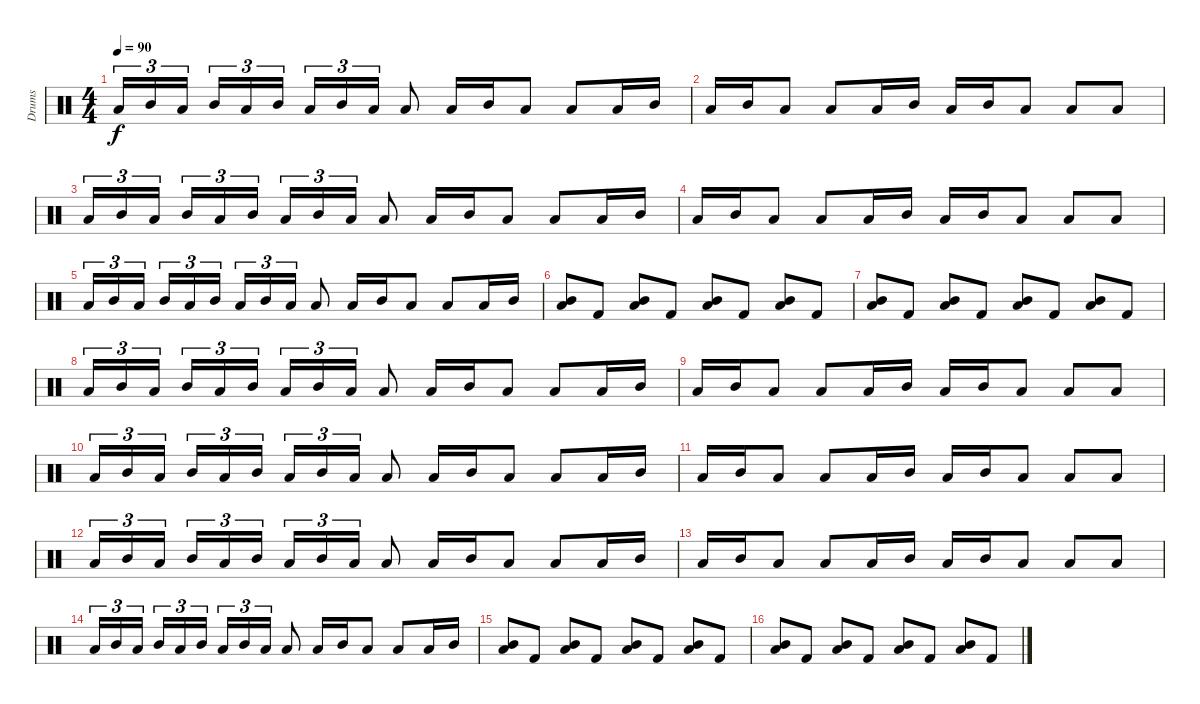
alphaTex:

\track ("Drums" "Drums") {instrument percussion}
\staff {score}
\articulation defaults
\ts (4 4)
\tempo 90
\clef neutral
\ks c "Low Tom (hit)".16{tu (3 2) dy f} "Mid Tom (hit)".16{tu (3 2)} "Low Tom (hit)".16{tu (3 2) beam splitsecondary} "Mid Tom (hit)".16{tu (3 2)} "Low Tom (hit)".16{tu (3 2)} "Mid Tom (hit)".16{tu (3 2)} "Low Tom (hit)".16{tu (3 2)} "Mid Tom (hit)".16{tu (3 2)} "Low Tom (hit)".16{tu (3 2)} "Low Tom (hit)".8 "Low Tom (hit)".16 "Mid Tom (hit)".16 "Low Tom (hit)".8 "Low Tom (hit)".8 "Low Tom (hit)".16 "Mid Tom (hit)".16
|
"Low Tom (hit)".16 "Mid Tom (hit)".16 "Low Tom (hit)".8 "Low Tom (hit)".8 "Low Tom (hit)".16 "Mid Tom (hit)".16 "Low Tom (hit)".16 "Mid Tom (hit)".16 "Low Tom (hit)".8 "Low Tom (hit)".8 "Low Tom (hit)".8 |
"Low Tom (hit)".16{tu (3 2)} "Mid Tom (hit)".16{tu (3 2)} "Low Tom (hit)".16{tu (3 2) beam splitsecondary} "Mid Tom (hit)".16{tu (3 2)} "Low Tom (hit)".16{tu (3 2)} "Mid Tom (hit)".16{tu (3 2)} "Low Tom (hit)".16{tu (3 2)} "Mid Tom (hit)".16{tu (3 2)} "Low Tom (hit)".16{tu (3 2)} "Low Tom (hit)".8 "Low Tom (hit)".16 "Mid Tom (hit)".16 "Low Tom (hit)".8 "Low Tom (hit)".8 "Low Tom (hit)".16 "Mid Tom (hit)".16 |
"Low Tom (hit)".16 "Mid Tom (hit)".16 "Low Tom (hit)".8 "Low Tom (hit)".8 "Low Tom (hit)".16 "Mid Tom (hit)".16 "Low Tom (hit)".16 "Mid Tom (hit)".16 "Low Tom (hit)".8 "Low Tom (hit)".8 "Low Tom (hit)".8 |
"Low Tom (hit)".16{tu (3 2)} "Mid Tom (hit)".16{tu (3 2)} "Low Tom (hit)".16{tu (3 2) beam splitsecondary} "Mid Tom (hit)".16{tu (3 2)} "Low Tom (hit)".16{tu (3 2)} "Mid Tom (hit)".16{tu (3 2)} "Low Tom (hit)".16{tu (3 2)} "Mid Tom (hit)".16{tu (3 2)} "Low Tom (hit)".16{tu (3 2)} "Low Tom (hit)".8 "Low Tom (hit)".16 "Mid Tom (hit)".16 "Low Tom (hit)".8 "Low Tom (hit)".8 "Low Tom (hit)".16 "Mid Tom (hit)".16 |
("Mid Tom (hit)" "Low Tom (hit)").8 "Kick (hit) 2".8 ("Mid Tom (hit)" "Low Tom (hit)").8 "Kick (hit) 2".8 ("Mid Tom (hit)" "Low Tom (hit)").8 "Kick (hit) 2".8 ("Mid Tom (hit)" "Low Tom (hit)").8 "Kick (hit) 2".8 |
("Mid Tom (hit)" "Low Tom (hit)").8 "Kick (hit) 2".8 ("Mid Tom (hit)" "Low Tom (hit)").8 "Kick (hit) 2".8 ("Mid Tom (hit)" "Low Tom (hit)").8 "Kick (hit) 2".8 ("Mid Tom (hit)" "Low Tom (hit)").8 "Kick (hit) 2".8 |
"Low Tom (hit)".16{tu (3 2)} "Mid Tom (hit)".16{tu (3 2)} "Low Tom (hit)".16{tu (3 2) beam splitsecondary} "Mid Tom (hit)".16{tu (3 2)} "Low Tom (hit)".16{tu (3 2)} "Mid Tom (hit)".16{tu (3 2)} "Low Tom (hit)".16{tu (3 2)} "Mid Tom (hit)".16{tu (3 2)} "Low Tom (hit)".16{tu (3 2)} "Low Tom (hit)".8 "Low Tom (hit)".16 "Mid Tom (hit)".16 "Low Tom (hit)".8 "Low Tom (hit)".8 "Low Tom (hit)".16 "Mid Tom (hit)".16 |
"Low Tom (hit)".16 "Mid Tom (hit)".16 "Low Tom (hit)".8 "Low Tom (hit)".8 "Low Tom (hit)".16 "Mid Tom (hit)".16 "Low Tom (hit)".16 "Mid Tom (hit)".16 "Low Tom (hit)".8 "Low Tom (hit)".8 "Low Tom (hit)".8 |
"Low Tom (hit)".16{tu (3 2)} "Mid Tom (hit)".16{tu (3 2)} "Low Tom (hit)".16{tu (3 2) beam splitsecondary} "Mid Tom (hit)".16{tu (3 2)} "Low Tom (hit)".16{tu (3 2)} "Mid Tom (hit)".16{tu (3 2)} "Low Tom (hit)".16{tu (3 2)} "Mid Tom (hit)".16{tu (3 2)} "Low Tom (hit)".16{tu (3 2)} "Low Tom (hit)".8 "Low Tom (hit)".16 "Mid Tom (hit)".16 "Low Tom (hit)".8 "Low Tom (hit)".8 "Low Tom (hit)".16 "Mid Tom (hit)".16 |
"Low Tom (hit)".16 "Mid Tom (hit)".16 "Low Tom (hit)".8 "Low Tom (hit)".8 "Low Tom (hit)".16 "Mid Tom (hit)".16 "Low Tom (hit)".16 "Mid Tom (hit)".16 "Low Tom (hit)".8 "Low Tom (hit)".8 "Low Tom (hit)".8 |
"Low Tom (hit)".16{tu (3 2)} "Mid Tom (hit)".16{tu (3 2)} "Low Tom (hit)".16{tu (3 2) beam splitsecondary} "Mid Tom (hit)".16{tu (3 2)} "Low Tom (hit)".16{tu (3 2)} "Mid Tom (hit)".16{tu (3 2)} "Low Tom (hit)".16{tu (3 2)} "Mid Tom (hit)".16{tu (3 2)} "Low Tom (hit)".16{tu (3 2)} "Low Tom (hit)".8 "Low Tom (hit)".16 "Mid Tom (hit)".16 "Low Tom (hit)".8 "Low Tom (hit)".8 "Low Tom (hit)".16 "Mid Tom (hit)".16 |
"Low Tom (hit)".16 "Mid Tom (hit)".16 "Low Tom (hit)".8 "Low Tom (hit)".8 "Low Tom (hit)".16 "Mid Tom (hit)".16 "Low Tom (hit)".16 "Mid Tom (hit)".16 "Low Tom (hit)".8 "Low Tom (hit)".8 "Low Tom (hit)".8 |
"Low Tom (hit)".16{tu (3 2)} "Mid Tom (hit)".16{tu (3 2)} "Low Tom (hit)".16{tu (3 2) beam splitsecondary} "Mid Tom (hit)".16{tu (3 2)} "Low Tom (hit)".16{tu (3 2)} "Mid Tom (hit)".16{tu (3 2)} "Low Tom (hit)".16{tu (3 2)} "Mid Tom (hit)".16{tu (3 2)} "Low Tom (hit)".16{tu (3 2)} "Low Tom (hit)".8 "Low Tom (hit)".16 "Mid Tom (hit)".16 "Low Tom (hit)".8 "Low Tom (hit)".8 "Low Tom (hit)".16 "Mid Tom (hit)".16 |
("Mid Tom (hit)" "Low Tom (hit)").8 "Kick (hit) 2".8 ("Mid Tom (hit)" "Low Tom (hit)").8 "Kick (hit) 2".8 ("Mid Tom (hit)" "Low Tom (hit)").8 "Kick (hit) 2".8 ("Mid Tom (hit)" "Low Tom (hit)").8 "Kick (hit) 2".8 |
("Mid Tom (hit)" "Low Tom (hit)").8 "Kick (hit) 2".8 ("Mid Tom (hit)" "Low Tom (hit)").8 "Kick (hit) 2".8 ("Mid Tom (hit)" "Low Tom (hit)").8 "Kick (hit) 2".8 ("Mid Tom (hit)" "Low Tom (hit)").8 "Kick (hit) 2".8
